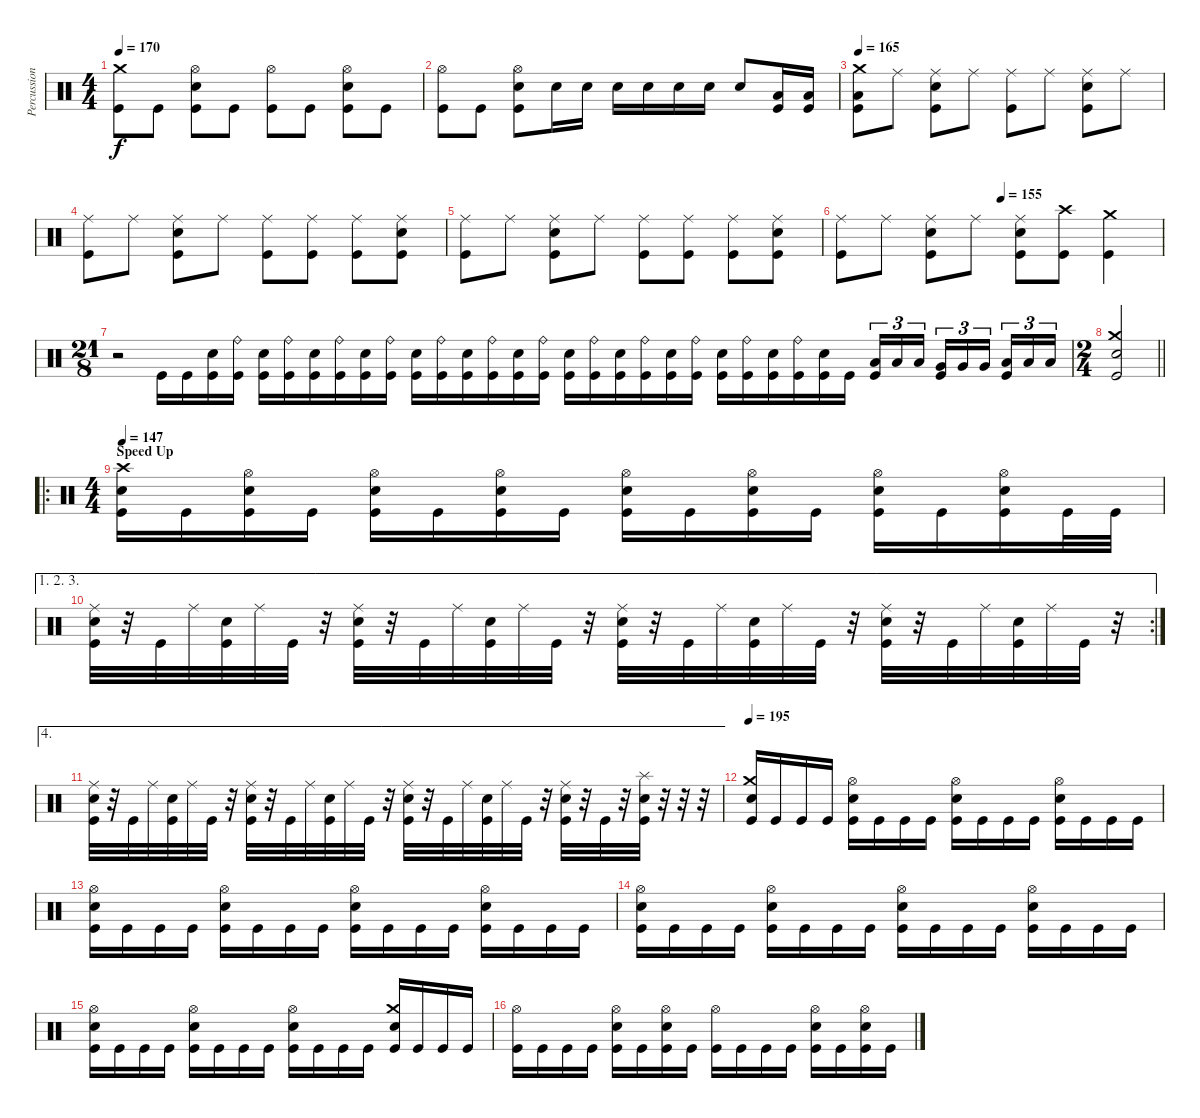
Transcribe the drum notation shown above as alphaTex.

\track ("Percussion" "Percussion") {instrument percussion}
\staff {score}
\articulation defaults
\ts (4 4)
\tempo 170
\clef neutral
\ks c
("Kick (hit)" "Crash medium (hit)").8{dy f} "Kick (hit)".8 ("Kick (hit)" "Snare (hit) 2" "Hi-Hat (open)").8 "Kick (hit)".8 ("Kick (hit)" "Hi-Hat (open)").8 "Kick (hit)".8 ("Kick (hit)" "Snare (hit) 2" "Hi-Hat (open)").8 "Kick (hit)".8 |
("Kick (hit)" "Hi-Hat (open)").8 "Kick (hit)".8 ("Kick (hit)" "Snare (hit) 2" "Hi-Hat (open)").8 "Snare (hit) 2".16 "Snare (hit) 2".16 "Snare (hit) 2".16 "Snare (hit) 2".16 "Snare (hit) 2".16 "Snare (hit) 2".16 "Snare (hit) 2".8 ("Kick (hit)" "Low Tom (hit)").16 ("Kick (hit)" "Low Tom (hit)").16 |
\tempo 165
("Kick (hit)" "Low Floor Tom (hit)" "Crash medium (hit)").8 "Ride (middle)".8 ("Kick (hit)" "Snare (hit) 2" "Ride (middle)").8 "Ride (middle)".8 ("Kick (hit)" "Ride (middle)").8 "Ride (middle)".8 ("Kick (hit)" "Snare (hit) 2" "Ride (middle)").8 "Ride (middle)".8 |
("Kick (hit)" "Ride (middle)").8 "Ride (middle)".8 ("Kick (hit)" "Snare (hit) 2" "Ride (middle)").8 "Ride (middle)".8 ("Kick (hit)" "Ride (middle)").8 ("Kick (hit)" "Ride (middle)").8 ("Kick (hit)" "Ride (middle)").8 ("Kick (hit)" "Snare (hit) 2" "Ride (middle)").8 |
("Kick (hit)" "Ride (middle)").8 "Ride (middle)".8 ("Kick (hit)" "Snare (hit) 2" "Ride (middle)").8 "Ride (middle)".8 ("Kick (hit)" "Ride (middle)").8 ("Kick (hit)" "Ride (middle)").8 ("Kick (hit)" "Ride (middle)").8 ("Kick (hit)" "Snare (hit) 2" "Ride (middle)").8 |
\tempo (155 0.5)
("Kick (hit)" "Ride (middle)").8 "Ride (middle)".8 ("Kick (hit)" "Snare (hit) 2" "Ride (middle)").8 "Ride (middle)".8 ("Kick (hit)" "Snare (hit) 2" "Ride (middle)").8 ("Kick (hit)" "Crash high (hit)").8 ("Kick (hit)" "Crash medium (hit)").4 |
\ts (21 8)
r.2 "Kick (hit)".16 "Kick (hit)".16 ("Kick (hit)" "Snare (hit) 2").16 ("Kick (hit)" "Ride (bell)").16 ("Kick (hit)" "Snare (hit) 2").16 ("Kick (hit)" "Ride (bell)").16 ("Kick (hit)" "Snare (hit) 2").16 ("Kick (hit)" "Ride (bell)").16 ("Kick (hit)" "Snare (hit) 2").16 ("Kick (hit)" "Ride (bell)").16 ("Kick (hit)" "Snare (hit) 2").16 ("Kick (hit)" "Ride (bell)").16 ("Kick (hit)" "Snare (hit) 2").16 ("Kick (hit)" "Ride (bell)").16 ("Kick (hit)" "Snare (hit) 2").16 ("Kick (hit)" "Ride (bell)").16 ("Kick (hit)" "Snare (hit) 2").16 ("Kick (hit)" "Ride (bell)").16 ("Kick (hit)" "Snare (hit) 2").16 ("Kick (hit)" "Ride (bell)").16 ("Kick (hit)" "Snare (hit) 2").16 ("Kick (hit)" "Ride (bell)").16 ("Kick (hit)" "Snare (hit) 2").16 ("Kick (hit)" "Ride (bell)").16 ("Kick (hit)" "Snare (hit) 2").16 ("Kick (hit)" "Ride (bell)").16 ("Kick (hit)" "Snare (hit) 2").16 "Kick (hit)".16 ("Kick (hit)" "Low Tom (hit)").16{tu (3 2)} "Low Tom (hit)".16{tu (3 2)} "Low Tom (hit)".16{tu (3 2)} ("Kick (hit)" "Very Low Tom (hit)").16{tu (3 2)} "Very Low Tom (hit)".16{tu (3 2)} "Very Low Tom (hit)".16{tu (3 2)} ("Kick (hit)" "Low Floor Tom (hit)").16{tu (3 2)} "Low Floor Tom (hit)".16{tu (3 2)} "Low Floor Tom (hit)".16{tu (3 2)} |
\ts (2 4)
\barLineRight lightlight
("Kick (hit)" "Snare (hit) 2" "Crash medium (hit)").2 |
\ro
\ts (4 4)
\section ("" "Speed Up")
\tempo 147
("Kick (hit)" "Snare (hit) 2" "Crash high (hit)").16 "Kick (hit)".16 ("Kick (hit)" "Snare (hit) 2" "Hi-Hat (open)").16 "Kick (hit)".16 ("Kick (hit)" "Snare (hit) 2" "Hi-Hat (open)").16 "Kick (hit)".16 ("Kick (hit)" "Snare (hit) 2" "Hi-Hat (open)").16 "Kick (hit)".16 ("Kick (hit)" "Snare (hit) 2" "Hi-Hat (open)").16 "Kick (hit)".16 ("Kick (hit)" "Snare (hit) 2" "Hi-Hat (open)").16 "Kick (hit)".16 ("Kick (hit)" "Snare (hit) 2" "Hi-Hat (open)").16 "Kick (hit)".16 ("Kick (hit)" "Snare (hit) 2" "Hi-Hat (open)").16 "Kick (hit)".32 "Kick (hit)".32 |
\ae (1 2 3)
\rc 2
("Kick (hit)" "Snare (hit) 2" "Ride (middle)").32 r.32 "Kick (hit)".32 "Ride (middle)".32 ("Kick (hit)" "Snare (hit) 2").32 "Ride (middle)".32 "Kick (hit)".32 r.32 ("Kick (hit)" "Snare (hit) 2" "Ride (middle)").32 r.32 "Kick (hit)".32 "Ride (middle)".32 ("Kick (hit)" "Snare (hit) 2").32 "Ride (middle)".32 "Kick (hit)".32 r.32 ("Kick (hit)" "Snare (hit) 2" "Ride (middle)").32 r.32 "Kick (hit)".32 "Ride (middle)".32 ("Kick (hit)" "Snare (hit) 2").32 "Ride (middle)".32 "Kick (hit)".32 r.32 ("Kick (hit)" "Snare (hit) 2" "Ride (middle)").32 r.32 "Kick (hit)".32 "Ride (middle)".32 ("Kick (hit)" "Snare (hit) 2").32 "Ride (middle)".32 "Kick (hit)".32 r.32 |
\ae 4
("Kick (hit)" "Snare (hit) 2" "Ride (middle)").32 r.32 "Kick (hit)".32 "Ride (middle)".32 ("Kick (hit)" "Snare (hit) 2").32 "Ride (middle)".32 "Kick (hit)".32 r.32 ("Kick (hit)" "Snare (hit) 2" "Ride (middle)").32 r.32 "Kick (hit)".32 "Ride (middle)".32 ("Kick (hit)" "Snare (hit) 2").32 "Ride (middle)".32 "Kick (hit)".32 r.32 ("Kick (hit)" "Snare (hit) 2" "Ride (middle)").32 r.32 "Kick (hit)".32 "Ride (middle)".32 ("Kick (hit)" "Snare (hit) 2").32 "Ride (middle)".32 "Kick (hit)".32 r.32 ("Kick (hit)" "Snare (hit) 2" "Ride (middle)").32 r.32 "Kick (hit)".32 r.32 ("Kick (hit)" "Snare (hit) 2" "Splash (hit)").32 r.32 r.32 r.32 |
\tempo 195
("Kick (hit)" "Snare (hit) 2" "Crash medium (hit)").16 "Kick (hit)".16 "Kick (hit)".16 "Kick (hit)".16 ("Kick (hit)" "Snare (hit) 2" "Hi-Hat (open)").16 "Kick (hit)".16 "Kick (hit)".16 "Kick (hit)".16 ("Kick (hit)" "Snare (hit) 2" "Hi-Hat (open)").16 "Kick (hit)".16 "Kick (hit)".16 "Kick (hit)".16 ("Kick (hit)" "Snare (hit) 2" "Hi-Hat (open)").16 "Kick (hit)".16 "Kick (hit)".16 "Kick (hit)".16 |
("Kick (hit)" "Snare (hit) 2" "Hi-Hat (open)").16 "Kick (hit)".16 "Kick (hit)".16 "Kick (hit)".16 ("Kick (hit)" "Snare (hit) 2" "Hi-Hat (open)").16 "Kick (hit)".16 "Kick (hit)".16 "Kick (hit)".16 ("Kick (hit)" "Snare (hit) 2" "Hi-Hat (open)").16 "Kick (hit)".16 "Kick (hit)".16 "Kick (hit)".16 ("Kick (hit)" "Snare (hit) 2" "Hi-Hat (open)").16 "Kick (hit)".16 "Kick (hit)".16 "Kick (hit)".16 |
("Kick (hit)" "Snare (hit) 2" "Hi-Hat (open)").16 "Kick (hit)".16 "Kick (hit)".16 "Kick (hit)".16 ("Kick (hit)" "Snare (hit) 2" "Hi-Hat (open)").16 "Kick (hit)".16 "Kick (hit)".16 "Kick (hit)".16 ("Kick (hit)" "Snare (hit) 2" "Hi-Hat (open)").16 "Kick (hit)".16 "Kick (hit)".16 "Kick (hit)".16 ("Kick (hit)" "Snare (hit) 2" "Hi-Hat (open)").16 "Kick (hit)".16 "Kick (hit)".16 "Kick (hit)".16 |
("Kick (hit)" "Snare (hit) 2" "Hi-Hat (open)").16 "Kick (hit)".16 "Kick (hit)".16 "Kick (hit)".16 ("Kick (hit)" "Snare (hit) 2" "Hi-Hat (open)").16 "Kick (hit)".16 "Kick (hit)".16 "Kick (hit)".16 ("Kick (hit)" "Snare (hit) 2" "Hi-Hat (open)").16 "Kick (hit)".16 "Kick (hit)".16 "Kick (hit)".16 ("Kick (hit)" "Snare (hit) 2" "Crash medium (hit)").16 "Kick (hit)".16 "Kick (hit)".16 "Kick (hit)".16 |
("Kick (hit)" "Hi-Hat (open)").16 "Kick (hit)".16 "Kick (hit)".16 "Kick (hit)".16 ("Kick (hit)" "Hi-Hat (open)" "Snare (hit) 2").16 "Kick (hit)".16 ("Kick (hit)" "Hi-Hat (open)" "Snare (hit) 2").16 "Kick (hit)".16 ("Kick (hit)" "Hi-Hat (open)").16 "Kick (hit)".16 "Kick (hit)".16 "Kick (hit)".16 ("Kick (hit)" "Hi-Hat (open)" "Snare (hit) 2").16 "Kick (hit)".16 ("Kick (hit)" "Hi-Hat (open)" "Snare (hit) 2").16 "Kick (hit)".16
